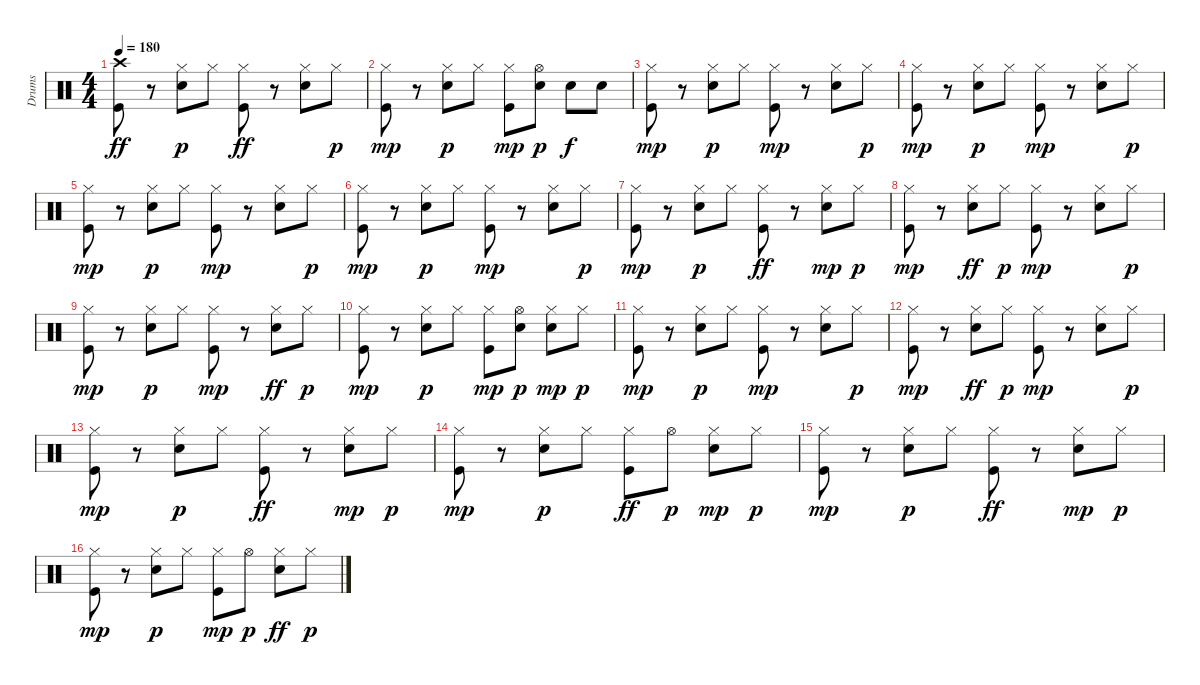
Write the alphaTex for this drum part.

\track ("Drums" "Drums") {instrument percussion}
\staff {score}
\articulation defaults
\ts (4 4)
\tempo 180
\clef neutral
\ks c
("Crash high (hit)" "Kick (hit)").8{dy ff} r.8 ("Snare (hit) 2" "Hi-Hat (closed)").8{dy p} "Hi-Hat (closed)".8 ("Hi-Hat (closed)" "Kick (hit)").8{dy ff} r.8 ("Hi-Hat (closed)" "Snare (hit) 2").8 "Hi-Hat (closed)".8{dy p} |
("Kick (hit)" "Hi-Hat (closed)").8{dy mp} r.8 ("Snare (hit) 2" "Hi-Hat (closed)").8{dy p} "Hi-Hat (closed)".8 ("Kick (hit)" "Hi-Hat (closed)").8{dy mp} ("Hi-Hat (open)" "Snare (hit) 2").8{dy p} "Snare (hit) 2".8{dy f} "Snare (hit) 2".8 |
("Kick (hit)" "Hi-Hat (closed)").8{dy mp} r.8 ("Snare (hit) 2" "Hi-Hat (closed)").8{dy p} "Hi-Hat (closed)".8 ("Kick (hit)" "Hi-Hat (closed)").8{dy mp} r.8 ("Snare (hit) 2" "Hi-Hat (closed)").8 "Hi-Hat (closed)".8{dy p} |
("Kick (hit)" "Hi-Hat (closed)").8{dy mp} r.8 ("Snare (hit) 2" "Hi-Hat (closed)").8{dy p} "Hi-Hat (closed)".8 ("Kick (hit)" "Hi-Hat (closed)").8{dy mp} r.8 ("Snare (hit) 2" "Hi-Hat (closed)").8 "Hi-Hat (closed)".8{dy p} |
("Kick (hit)" "Hi-Hat (closed)").8{dy mp} r.8 ("Snare (hit) 2" "Hi-Hat (closed)").8{dy p} "Hi-Hat (closed)".8 ("Kick (hit)" "Hi-Hat (closed)").8{dy mp} r.8 ("Snare (hit) 2" "Hi-Hat (closed)").8 "Hi-Hat (closed)".8{dy p} |
("Kick (hit)" "Hi-Hat (closed)").8{dy mp} r.8 ("Snare (hit) 2" "Hi-Hat (closed)").8{dy p} "Hi-Hat (closed)".8 ("Kick (hit)" "Hi-Hat (closed)").8{dy mp} r.8 ("Snare (hit) 2" "Hi-Hat (closed)").8 "Hi-Hat (closed)".8{dy p} |
("Kick (hit)" "Hi-Hat (closed)").8{dy mp} r.8 ("Snare (hit) 2" "Hi-Hat (closed)").8{dy p} "Hi-Hat (closed)".8 ("Hi-Hat (closed)" "Kick (hit)").8{dy ff} r.8 ("Snare (hit) 2" "Hi-Hat (closed)").8{dy mp} "Hi-Hat (closed)".8{dy p} |
("Kick (hit)" "Hi-Hat (closed)").8{dy mp} r.8 ("Hi-Hat (closed)" "Snare (hit) 2").8{dy ff} "Hi-Hat (closed)".8{dy p} ("Kick (hit)" "Hi-Hat (closed)").8{dy mp} r.8 ("Snare (hit) 2" "Hi-Hat (closed)").8 "Hi-Hat (closed)".8{dy p} |
("Kick (hit)" "Hi-Hat (closed)").8{dy mp} r.8 ("Snare (hit) 2" "Hi-Hat (closed)").8{dy p} "Hi-Hat (closed)".8 ("Kick (hit)" "Hi-Hat (closed)").8{dy mp} r.8 ("Hi-Hat (closed)" "Snare (hit) 2").8{dy ff} "Hi-Hat (closed)".8{dy p} |
("Kick (hit)" "Hi-Hat (closed)").8{dy mp} r.8 ("Snare (hit) 2" "Hi-Hat (closed)").8{dy p} "Hi-Hat (closed)".8 ("Kick (hit)" "Hi-Hat (closed)").8{dy mp} ("Hi-Hat (open)" "Snare (hit) 2").8{dy p} ("Snare (hit) 2" "Hi-Hat (closed)").8{dy mp} "Hi-Hat (closed)".8{dy p} |
("Kick (hit)" "Hi-Hat (closed)").8{dy mp} r.8 ("Snare (hit) 2" "Hi-Hat (closed)").8{dy p} "Hi-Hat (closed)".8 ("Kick (hit)" "Hi-Hat (closed)").8{dy mp} r.8 ("Snare (hit) 2" "Hi-Hat (closed)").8 "Hi-Hat (closed)".8{dy p} |
("Kick (hit)" "Hi-Hat (closed)").8{dy mp} r.8 ("Hi-Hat (closed)" "Snare (hit) 2").8{dy ff} "Hi-Hat (closed)".8{dy p} ("Kick (hit)" "Hi-Hat (closed)").8{dy mp} r.8 ("Snare (hit) 2" "Hi-Hat (closed)").8 "Hi-Hat (closed)".8{dy p} |
("Kick (hit)" "Hi-Hat (closed)").8{dy mp} r.8 ("Snare (hit) 2" "Hi-Hat (closed)").8{dy p} "Hi-Hat (closed)".8 ("Hi-Hat (closed)" "Kick (hit)").8{dy ff} r.8 ("Snare (hit) 2" "Hi-Hat (closed)").8{dy mp} "Hi-Hat (closed)".8{dy p} |
("Kick (hit)" "Hi-Hat (closed)").8{dy mp} r.8 ("Snare (hit) 2" "Hi-Hat (closed)").8{dy p} "Hi-Hat (closed)".8 ("Hi-Hat (closed)" "Kick (hit)").8{dy ff} "Hi-Hat (open)".8{dy p} ("Snare (hit) 2" "Hi-Hat (closed)").8{dy mp} "Hi-Hat (closed)".8{dy p} |
("Kick (hit)" "Hi-Hat (closed)").8{dy mp} r.8 ("Snare (hit) 2" "Hi-Hat (closed)").8{dy p} "Hi-Hat (closed)".8 ("Hi-Hat (closed)" "Kick (hit)").8{dy ff} r.8 ("Snare (hit) 2" "Hi-Hat (closed)").8{dy mp} "Hi-Hat (closed)".8{dy p} |
("Kick (hit)" "Hi-Hat (closed)").8{dy mp} r.8 ("Snare (hit) 2" "Hi-Hat (closed)").8{dy p} "Hi-Hat (closed)".8 ("Kick (hit)" "Hi-Hat (closed)").8{dy mp} "Hi-Hat (open)".8{dy p} ("Hi-Hat (closed)" "Snare (hit) 2").8{dy ff} "Hi-Hat (closed)".8{dy p}
